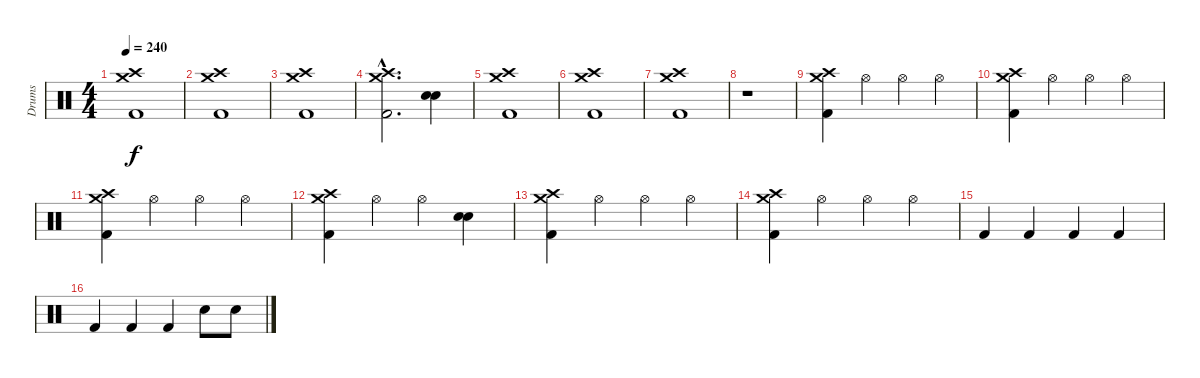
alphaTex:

\track ("Drums" "Drums") {instrument percussion}
\staff {score}
\articulation defaults
\ts (4 4)
\tempo 240
\clef neutral
\ks c
("Crash medium (hit)" "Crash high (hit)" "Kick (hit) 2").1{dy f} |
("Crash medium (hit)" "Crash high (hit)" "Kick (hit) 2").1 |
("Crash medium (hit)" "Crash high (hit)" "Kick (hit) 2").1 |
("Crash medium (hit)"{hac} "Crash high (hit)"{hac} "Kick (hit) 2"{hac}).2{d} ("Snare (hit) 2" "Snare (hit) 2").4 |
("Crash medium (hit)" "Crash high (hit)" "Kick (hit) 2").1 |
("Crash medium (hit)" "Crash high (hit)" "Kick (hit) 2").1 |
("Crash medium (hit)" "Crash high (hit)" "Kick (hit) 2").1 |
r.1 |
("Crash medium (hit)" "Crash high (hit)" "Kick (hit) 2").4 "Hi-Hat (open)".4 "Hi-Hat (open)".4 "Hi-Hat (open)".4 |
("Crash medium (hit)" "Crash high (hit)" "Kick (hit) 2").4 "Hi-Hat (open)".4 "Hi-Hat (open)".4 "Hi-Hat (open)".4 |
("Crash medium (hit)" "Crash high (hit)" "Kick (hit) 2").4 "Hi-Hat (open)".4 "Hi-Hat (open)".4 "Hi-Hat (open)".4 |
("Crash medium (hit)" "Crash high (hit)" "Kick (hit) 2").4 "Hi-Hat (open)".4 "Hi-Hat (open)".4 ("Snare (hit) 2" "Snare (hit) 2").4 |
("Crash medium (hit)" "Crash high (hit)" "Kick (hit) 2").4 "Hi-Hat (open)".4 "Hi-Hat (open)".4 "Hi-Hat (open)".4 |
("Crash medium (hit)" "Crash high (hit)" "Kick (hit) 2").4 "Hi-Hat (open)".4 "Hi-Hat (open)".4 "Hi-Hat (open)".4 |
"Kick (hit) 2".4 "Kick (hit) 2".4 "Kick (hit) 2".4 "Kick (hit) 2".4 |
"Kick (hit) 2".4 "Kick (hit) 2".4 "Kick (hit) 2".4 "Snare (hit) 2".8 "Snare (hit) 2".8
